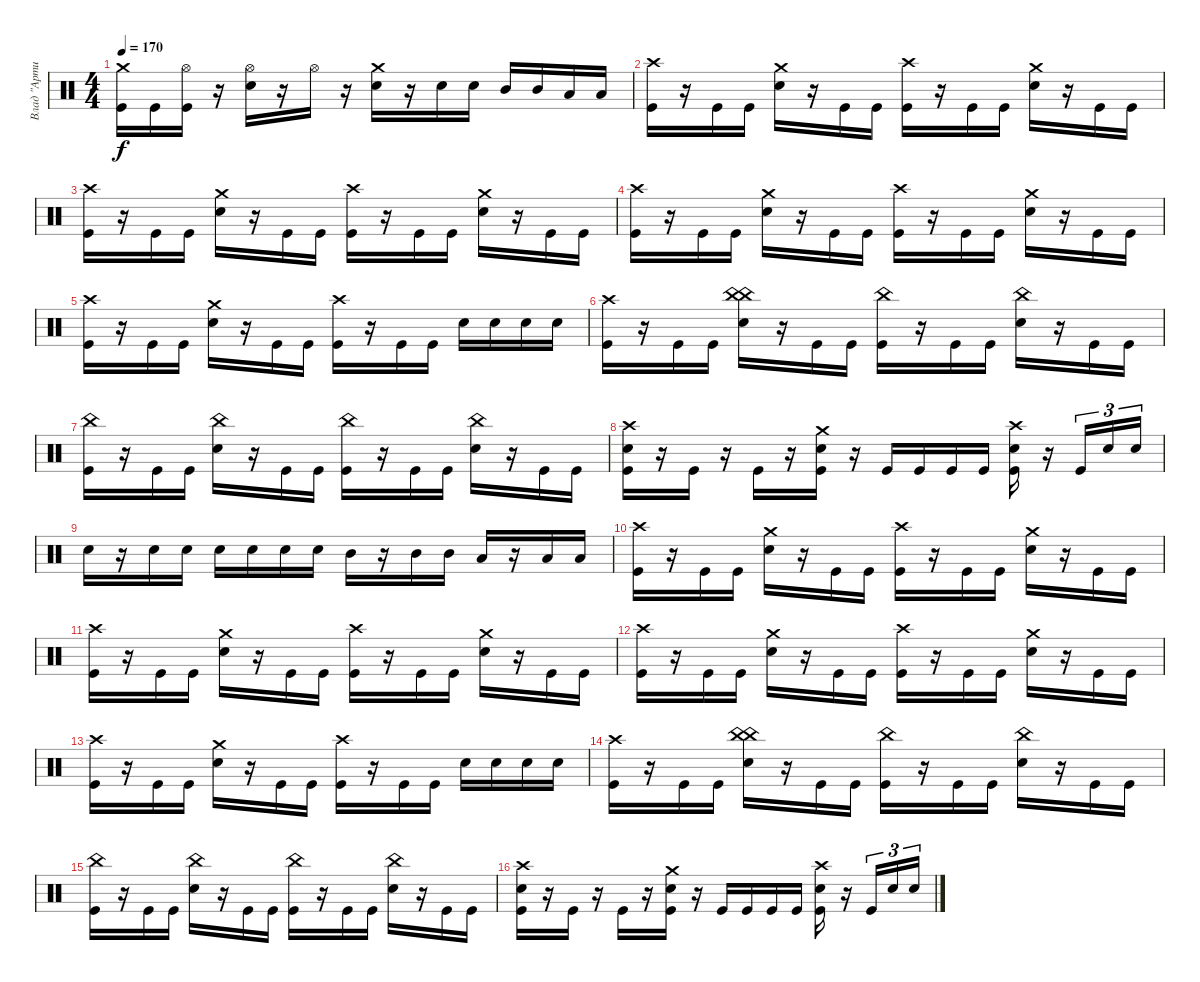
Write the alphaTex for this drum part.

\track ("Влад \"Артист\"" "Влад \"Арти") {instrument percussion}
\staff {score}
\articulation defaults
\ts (4 4)
\tempo 170
\clef neutral
\ks c
("Crash medium (hit)" "Kick (hit)").16{dy f} "Kick (hit)".16 ("Hi-Hat (open)" "Kick (hit)").16 r.16 ("Hi-Hat (open)" "Snare (hit) 2").16 r.16 "Hi-Hat (open)".16 r.16 ("Snare (hit) 2" "Crash medium (hit)").16 r.16 "Snare (hit) 2".16 "Snare (hit) 2".16 "Mid Tom (hit)".16 "Mid Tom (hit)".16 "Low Tom (hit)".16 "Low Tom (hit)".16 |
("Crash high (hit)" "Kick (hit)").16 r.16 "Kick (hit)".16 "Kick (hit)".16 ("Crash medium (hit)" "Snare (hit) 2").16 r.16 "Kick (hit)".16 "Kick (hit)".16 ("Kick (hit)" "Crash high (hit)").16 r.16 "Kick (hit)".16 "Kick (hit)".16 ("Snare (hit) 2" "Crash medium (hit)").16 r.16 "Kick (hit)".16 "Kick (hit)".16 |
("Crash high (hit)" "Kick (hit)").16 r.16 "Kick (hit)".16 "Kick (hit)".16 ("Crash medium (hit)" "Snare (hit) 2").16 r.16 "Kick (hit)".16 "Kick (hit)".16 ("Kick (hit)" "Crash high (hit)").16 r.16 "Kick (hit)".16 "Kick (hit)".16 ("Snare (hit) 2" "Crash medium (hit)").16 r.16 "Kick (hit)".16 "Kick (hit)".16 |
("Crash high (hit)" "Kick (hit)").16 r.16 "Kick (hit)".16 "Kick (hit)".16 ("Crash medium (hit)" "Snare (hit) 2").16 r.16 "Kick (hit)".16 "Kick (hit)".16 ("Kick (hit)" "Crash high (hit)").16 r.16 "Kick (hit)".16 "Kick (hit)".16 ("Snare (hit) 2" "Crash medium (hit)").16 r.16 "Kick (hit)".16 "Kick (hit)".16 |
("Crash high (hit)" "Kick (hit)").16 r.16 "Kick (hit)".16 "Kick (hit)".16 ("Crash medium (hit)" "Snare (hit) 2").16 r.16 "Kick (hit)".16 "Kick (hit)".16 ("Kick (hit)" "Crash high (hit)").16 r.16 "Kick (hit)".16 "Kick (hit)".16 "Snare (hit) 2".16 "Snare (hit) 2".16 "Snare (hit) 2".16 "Snare (hit) 2".16 |
("Crash high (hit)" "Kick (hit)").16 r.16 "Kick (hit)".16 "Kick (hit)".16 ("China (hit)" "China (hit)" "Snare (hit) 2").16 r.16 "Kick (hit)".16 "Kick (hit)".16 ("China (hit)" "Kick (hit)").16 r.16 "Kick (hit)".16 "Kick (hit)".16 ("China (hit)" "Snare (hit) 2").16 r.16 "Kick (hit)".16 "Kick (hit)".16 |
("China (hit)" "Kick (hit)").16 r.16 "Kick (hit)".16 "Kick (hit)".16 ("China (hit)" "Snare (hit) 2").16 r.16 "Kick (hit)".16 "Kick (hit)".16 ("China (hit)" "Kick (hit)").16 r.16 "Kick (hit)".16 "Kick (hit)".16 ("China (hit)" "Snare (hit) 2").16 r.16 "Kick (hit)".16 "Kick (hit)".16 |
("Snare (hit) 2" "Crash high (hit)" "Kick (hit)").16 r.16 "Kick (hit)".16 r.16 "Kick (hit)".16 r.16 ("Snare (hit) 2" "Crash medium (hit)" "Kick (hit)").16 r.16 "Kick (hit)".16 "Kick (hit)".16 "Kick (hit)".16 "Kick (hit)".16 ("Crash high (hit)" "Snare (hit) 2" "Kick (hit)").16 r.16 "Kick (hit)".16{tu (3 2)} "Snare (hit) 2".16{tu (3 2)} "Snare (hit) 2".16{tu (3 2)} |
"Snare (hit) 2".16 r.16 "Snare (hit) 2".16 "Snare (hit) 2".16 "Snare (hit) 2".16 "Snare (hit) 2".16 "Snare (hit) 2".16 "Snare (hit) 2".16 "Mid Tom (hit)".16 r.16 "Mid Tom (hit)".16 "Mid Tom (hit)".16 "Low Tom (hit)".16 r.16 "Low Tom (hit)".16 "Low Tom (hit)".16 |
("Crash high (hit)" "Kick (hit)").16 r.16 "Kick (hit)".16 "Kick (hit)".16 ("Crash medium (hit)" "Snare (hit) 2").16 r.16 "Kick (hit)".16 "Kick (hit)".16 ("Kick (hit)" "Crash high (hit)").16 r.16 "Kick (hit)".16 "Kick (hit)".16 ("Snare (hit) 2" "Crash medium (hit)").16 r.16 "Kick (hit)".16 "Kick (hit)".16 |
("Crash high (hit)" "Kick (hit)").16 r.16 "Kick (hit)".16 "Kick (hit)".16 ("Crash medium (hit)" "Snare (hit) 2").16 r.16 "Kick (hit)".16 "Kick (hit)".16 ("Kick (hit)" "Crash high (hit)").16 r.16 "Kick (hit)".16 "Kick (hit)".16 ("Snare (hit) 2" "Crash medium (hit)").16 r.16 "Kick (hit)".16 "Kick (hit)".16 |
("Crash high (hit)" "Kick (hit)").16 r.16 "Kick (hit)".16 "Kick (hit)".16 ("Crash medium (hit)" "Snare (hit) 2").16 r.16 "Kick (hit)".16 "Kick (hit)".16 ("Kick (hit)" "Crash high (hit)").16 r.16 "Kick (hit)".16 "Kick (hit)".16 ("Snare (hit) 2" "Crash medium (hit)").16 r.16 "Kick (hit)".16 "Kick (hit)".16 |
("Crash high (hit)" "Kick (hit)").16 r.16 "Kick (hit)".16 "Kick (hit)".16 ("Crash medium (hit)" "Snare (hit) 2").16 r.16 "Kick (hit)".16 "Kick (hit)".16 ("Kick (hit)" "Crash high (hit)").16 r.16 "Kick (hit)".16 "Kick (hit)".16 "Snare (hit) 2".16 "Snare (hit) 2".16 "Snare (hit) 2".16 "Snare (hit) 2".16 |
("Crash high (hit)" "Kick (hit)").16 r.16 "Kick (hit)".16 "Kick (hit)".16 ("China (hit)" "China (hit)" "Snare (hit) 2").16 r.16 "Kick (hit)".16 "Kick (hit)".16 ("China (hit)" "Kick (hit)").16 r.16 "Kick (hit)".16 "Kick (hit)".16 ("China (hit)" "Snare (hit) 2").16 r.16 "Kick (hit)".16 "Kick (hit)".16 |
("China (hit)" "Kick (hit)").16 r.16 "Kick (hit)".16 "Kick (hit)".16 ("China (hit)" "Snare (hit) 2").16 r.16 "Kick (hit)".16 "Kick (hit)".16 ("China (hit)" "Kick (hit)").16 r.16 "Kick (hit)".16 "Kick (hit)".16 ("China (hit)" "Snare (hit) 2").16 r.16 "Kick (hit)".16 "Kick (hit)".16 |
("Snare (hit) 2" "Crash high (hit)" "Kick (hit)").16 r.16 "Kick (hit)".16 r.16 "Kick (hit)".16 r.16 ("Snare (hit) 2" "Crash medium (hit)" "Kick (hit)").16 r.16 "Kick (hit)".16 "Kick (hit)".16 "Kick (hit)".16 "Kick (hit)".16 ("Crash high (hit)" "Snare (hit) 2" "Kick (hit)").16 r.16 "Kick (hit)".16{tu (3 2)} "Snare (hit) 2".16{tu (3 2)} "Snare (hit) 2".16{tu (3 2)}
